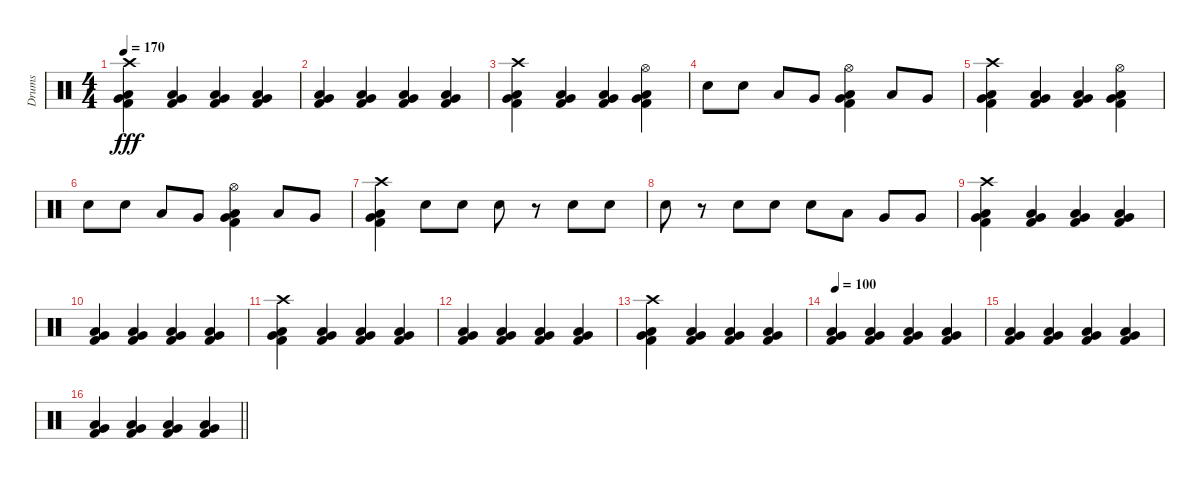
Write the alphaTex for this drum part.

\track ("Drums" "Drums") {instrument percussion}
\staff {score}
\articulation defaults
\ts (4 4)
\tempo 170
\clef neutral
\ks c
("Crash high (hit)" "Low Tom (hit)" "Very Low Tom (hit)" "Kick (hit) 2").4{dy fff} ("Low Tom (hit)" "Very Low Tom (hit)" "Kick (hit) 2").4 ("Low Tom (hit)" "Very Low Tom (hit)" "Kick (hit) 2").4 ("Low Tom (hit)" "Very Low Tom (hit)" "Kick (hit) 2").4 |
("Low Tom (hit)" "Very Low Tom (hit)" "Kick (hit) 2").4 ("Low Tom (hit)" "Very Low Tom (hit)" "Kick (hit) 2").4 ("Low Tom (hit)" "Very Low Tom (hit)" "Kick (hit) 2").4 ("Low Tom (hit)" "Very Low Tom (hit)" "Kick (hit) 2").4 |
("Crash high (hit)" "Low Tom (hit)" "Very Low Tom (hit)" "Kick (hit) 2").4 ("Low Tom (hit)" "Very Low Tom (hit)" "Kick (hit) 2").4 ("Low Tom (hit)" "Very Low Tom (hit)" "Kick (hit) 2").4 ("Hi-Hat (open)" "Low Tom (hit)" "Very Low Tom (hit)" "Kick (hit) 2").4 |
"Electric Snare (hit)".8 "Electric Snare (hit)".8 "Low Tom (hit)".8 "Very Low Tom (hit)".8 ("Hi-Hat (open)" "Low Tom (hit)" "Very Low Tom (hit)" "Kick (hit) 2").4 "Low Tom (hit)".8 "Very Low Tom (hit)".8 |
("Crash high (hit)" "Low Tom (hit)" "Very Low Tom (hit)" "Kick (hit) 2").4 ("Low Tom (hit)" "Very Low Tom (hit)" "Kick (hit) 2").4 ("Low Tom (hit)" "Very Low Tom (hit)" "Kick (hit) 2").4 ("Hi-Hat (open)" "Low Tom (hit)" "Very Low Tom (hit)" "Kick (hit) 2").4 |
"Electric Snare (hit)".8 "Electric Snare (hit)".8 "Low Tom (hit)".8 "Very Low Tom (hit)".8 ("Hi-Hat (open)" "Low Tom (hit)" "Very Low Tom (hit)" "Kick (hit) 2").4 "Low Tom (hit)".8 "Very Low Tom (hit)".8 |
("Crash high (hit)" "Low Tom (hit)" "Very Low Tom (hit)" "Kick (hit) 2").4 "Electric Snare (hit)".8 "Electric Snare (hit)".8 "Electric Snare (hit)".8 r.8 "Electric Snare (hit)".8 "Electric Snare (hit)".8 |
"Electric Snare (hit)".8 r.8 "Electric Snare (hit)".8 "Electric Snare (hit)".8 "Electric Snare (hit)".8 "Low Tom (hit)".8 "Very Low Tom (hit)".8 "Very Low Tom (hit)".8 |
("Crash high (hit)" "Low Tom (hit)" "Very Low Tom (hit)" "Kick (hit) 2").4 ("Low Tom (hit)" "Very Low Tom (hit)" "Kick (hit) 2").4 ("Low Tom (hit)" "Very Low Tom (hit)" "Kick (hit) 2").4 ("Low Tom (hit)" "Very Low Tom (hit)" "Kick (hit) 2").4 |
("Low Tom (hit)" "Very Low Tom (hit)" "Kick (hit) 2").4 ("Low Tom (hit)" "Very Low Tom (hit)" "Kick (hit) 2").4 ("Low Tom (hit)" "Very Low Tom (hit)" "Kick (hit) 2").4 ("Low Tom (hit)" "Very Low Tom (hit)" "Kick (hit) 2").4 |
("Crash high (hit)" "Low Tom (hit)" "Very Low Tom (hit)" "Kick (hit) 2").4 ("Low Tom (hit)" "Very Low Tom (hit)" "Kick (hit) 2").4 ("Low Tom (hit)" "Very Low Tom (hit)" "Kick (hit) 2").4 ("Low Tom (hit)" "Very Low Tom (hit)" "Kick (hit) 2").4 |
("Low Tom (hit)" "Very Low Tom (hit)" "Kick (hit) 2").4 ("Low Tom (hit)" "Very Low Tom (hit)" "Kick (hit) 2").4 ("Low Tom (hit)" "Very Low Tom (hit)" "Kick (hit) 2").4 ("Low Tom (hit)" "Very Low Tom (hit)" "Kick (hit) 2").4 |
("Crash high (hit)" "Low Tom (hit)" "Very Low Tom (hit)" "Kick (hit) 2").4 ("Low Tom (hit)" "Very Low Tom (hit)" "Kick (hit) 2").4 ("Low Tom (hit)" "Very Low Tom (hit)" "Kick (hit) 2").4 ("Low Tom (hit)" "Very Low Tom (hit)" "Kick (hit) 2").4 |
\tempo 100
("Low Tom (hit)" "Very Low Tom (hit)" "Kick (hit) 2").4 ("Low Tom (hit)" "Very Low Tom (hit)" "Kick (hit) 2").4 ("Low Tom (hit)" "Very Low Tom (hit)" "Kick (hit) 2").4 ("Low Tom (hit)" "Very Low Tom (hit)" "Kick (hit) 2").4 |
("Low Tom (hit)" "Very Low Tom (hit)" "Kick (hit) 2").4 ("Low Tom (hit)" "Very Low Tom (hit)" "Kick (hit) 2").4 ("Low Tom (hit)" "Very Low Tom (hit)" "Kick (hit) 2").4 ("Low Tom (hit)" "Very Low Tom (hit)" "Kick (hit) 2").4 |
\barLineRight lightlight
("Low Tom (hit)" "Very Low Tom (hit)" "Kick (hit) 2").4 ("Low Tom (hit)" "Very Low Tom (hit)" "Kick (hit) 2").4 ("Low Tom (hit)" "Very Low Tom (hit)" "Kick (hit) 2").4 ("Low Tom (hit)" "Very Low Tom (hit)" "Kick (hit) 2").4
